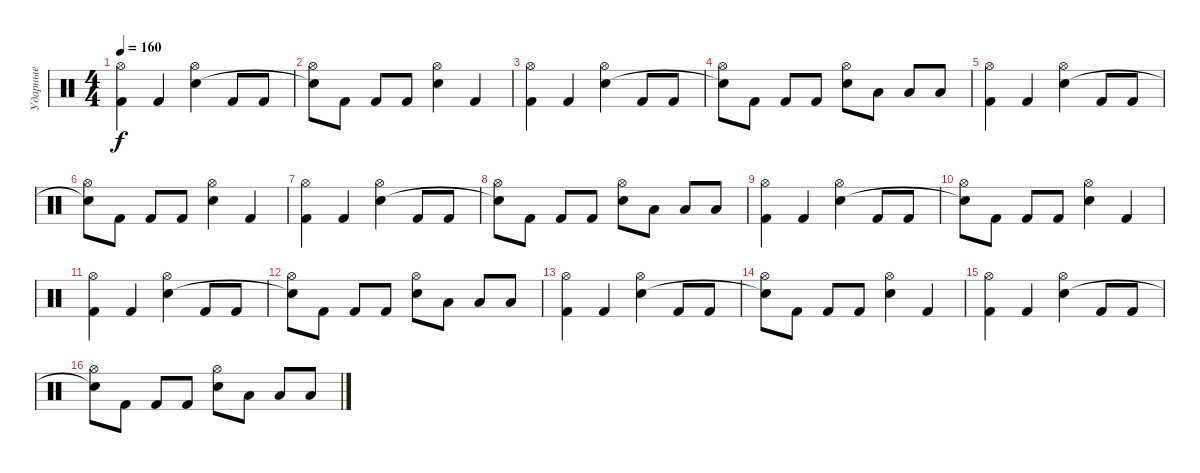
\track ("Ударные" "Ударные") {instrument percussion}
\staff {score}
\articulation defaults
\ts (4 4)
\tempo 160
\clef neutral
\ks c
("Hi-Hat (open)" "Kick (hit) 2").4{dy f} "Kick (hit) 2".4 ("Hi-Hat (open)" "Electric Snare (hit)").4 "Kick (hit) 2".8 "Kick (hit) 2".8 |
("Hi-Hat (open)" "Snare (hit)"{t}).8 "Kick (hit) 2".8 "Kick (hit) 2".8 "Kick (hit) 2".8 ("Hi-Hat (open)" "Electric Snare (hit)").4 "Kick (hit) 2".4 |
("Hi-Hat (open)" "Kick (hit) 2").4 "Kick (hit) 2".4 ("Hi-Hat (open)" "Electric Snare (hit)").4 "Kick (hit) 2".8 "Kick (hit) 2".8 |
("Hi-Hat (open)" "Snare (hit)"{t}).8 "Kick (hit) 2".8 "Kick (hit) 2".8 "Kick (hit) 2".8 ("Hi-Hat (open)" "Electric Snare (hit)").8 "Low Tom (hit)".8 "Low Tom (hit)".8 "Low Tom (hit)".8 |
("Hi-Hat (open)" "Kick (hit) 2").4 "Kick (hit) 2".4 ("Hi-Hat (open)" "Electric Snare (hit)").4 "Kick (hit) 2".8 "Kick (hit) 2".8 |
("Hi-Hat (open)" "Snare (hit)"{t}).8 "Kick (hit) 2".8 "Kick (hit) 2".8 "Kick (hit) 2".8 ("Hi-Hat (open)" "Electric Snare (hit)").4 "Kick (hit) 2".4 |
("Hi-Hat (open)" "Kick (hit) 2").4 "Kick (hit) 2".4 ("Hi-Hat (open)" "Electric Snare (hit)").4 "Kick (hit) 2".8 "Kick (hit) 2".8 |
("Hi-Hat (open)" "Snare (hit)"{t}).8 "Kick (hit) 2".8 "Kick (hit) 2".8 "Kick (hit) 2".8 ("Hi-Hat (open)" "Electric Snare (hit)").8 "Low Tom (hit)".8 "Low Tom (hit)".8 "Low Tom (hit)".8 |
("Hi-Hat (open)" "Kick (hit) 2").4 "Kick (hit) 2".4 ("Hi-Hat (open)" "Electric Snare (hit)").4 "Kick (hit) 2".8 "Kick (hit) 2".8 |
("Hi-Hat (open)" "Snare (hit)"{t}).8 "Kick (hit) 2".8 "Kick (hit) 2".8 "Kick (hit) 2".8 ("Hi-Hat (open)" "Electric Snare (hit)").4 "Kick (hit) 2".4 |
("Hi-Hat (open)" "Kick (hit) 2").4 "Kick (hit) 2".4 ("Hi-Hat (open)" "Electric Snare (hit)").4 "Kick (hit) 2".8 "Kick (hit) 2".8 |
("Hi-Hat (open)" "Snare (hit)"{t}).8 "Kick (hit) 2".8 "Kick (hit) 2".8 "Kick (hit) 2".8 ("Hi-Hat (open)" "Electric Snare (hit)").8 "Low Tom (hit)".8 "Low Tom (hit)".8 "Low Tom (hit)".8 |
("Hi-Hat (open)" "Kick (hit) 2").4 "Kick (hit) 2".4 ("Hi-Hat (open)" "Electric Snare (hit)").4 "Kick (hit) 2".8 "Kick (hit) 2".8 |
("Hi-Hat (open)" "Snare (hit)"{t}).8 "Kick (hit) 2".8 "Kick (hit) 2".8 "Kick (hit) 2".8 ("Hi-Hat (open)" "Electric Snare (hit)").4 "Kick (hit) 2".4 |
("Hi-Hat (open)" "Kick (hit) 2").4 "Kick (hit) 2".4 ("Hi-Hat (open)" "Electric Snare (hit)").4 "Kick (hit) 2".8 "Kick (hit) 2".8 |
("Hi-Hat (open)" "Snare (hit)"{t}).8 "Kick (hit) 2".8 "Kick (hit) 2".8 "Kick (hit) 2".8 ("Hi-Hat (open)" "Electric Snare (hit)").8 "Low Tom (hit)".8 "Low Tom (hit)".8 "Low Tom (hit)".8
